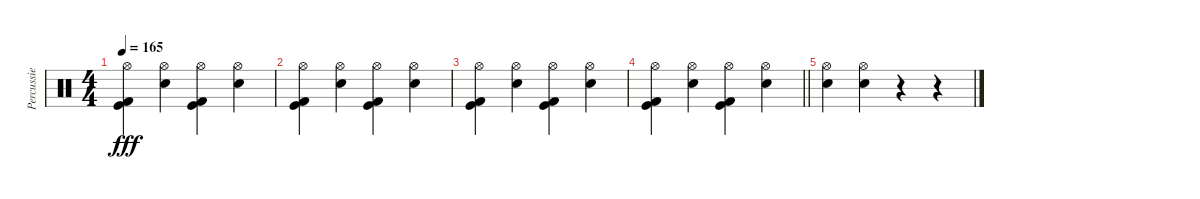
\track ("Percussie" "Percussie") {instrument percussion}
\staff {score}
\articulation defaults
\ts (4 4)
\tempo 165
\clef neutral
\ks c
("Hi-Hat (open)" "Kick (hit)" "Kick (hit) 2").4{dy fff} ("Hi-Hat (open)" "Snare (hit) 2").4 ("Hi-Hat (open)" "Kick (hit)" "Kick (hit) 2").4 ("Hi-Hat (open)" "Snare (hit) 2").4 |
("Hi-Hat (open)" "Kick (hit)" "Kick (hit) 2").4 ("Hi-Hat (open)" "Snare (hit) 2").4 ("Hi-Hat (open)" "Kick (hit)" "Kick (hit) 2").4 ("Hi-Hat (open)" "Snare (hit) 2").4 |
("Hi-Hat (open)" "Kick (hit)" "Kick (hit) 2").4 ("Hi-Hat (open)" "Snare (hit) 2").4 ("Hi-Hat (open)" "Kick (hit)" "Kick (hit) 2").4 ("Hi-Hat (open)" "Snare (hit) 2").4 |
\barLineRight lightlight
("Hi-Hat (open)" "Kick (hit)" "Kick (hit) 2").4 ("Hi-Hat (open)" "Snare (hit) 2").4 ("Hi-Hat (open)" "Kick (hit)" "Kick (hit) 2").4 ("Hi-Hat (open)" "Snare (hit) 2").4 |
("Hi-Hat (open)" "Snare (hit) 2").4 ("Hi-Hat (open)" "Snare (hit) 2").4 r.4 r.4
